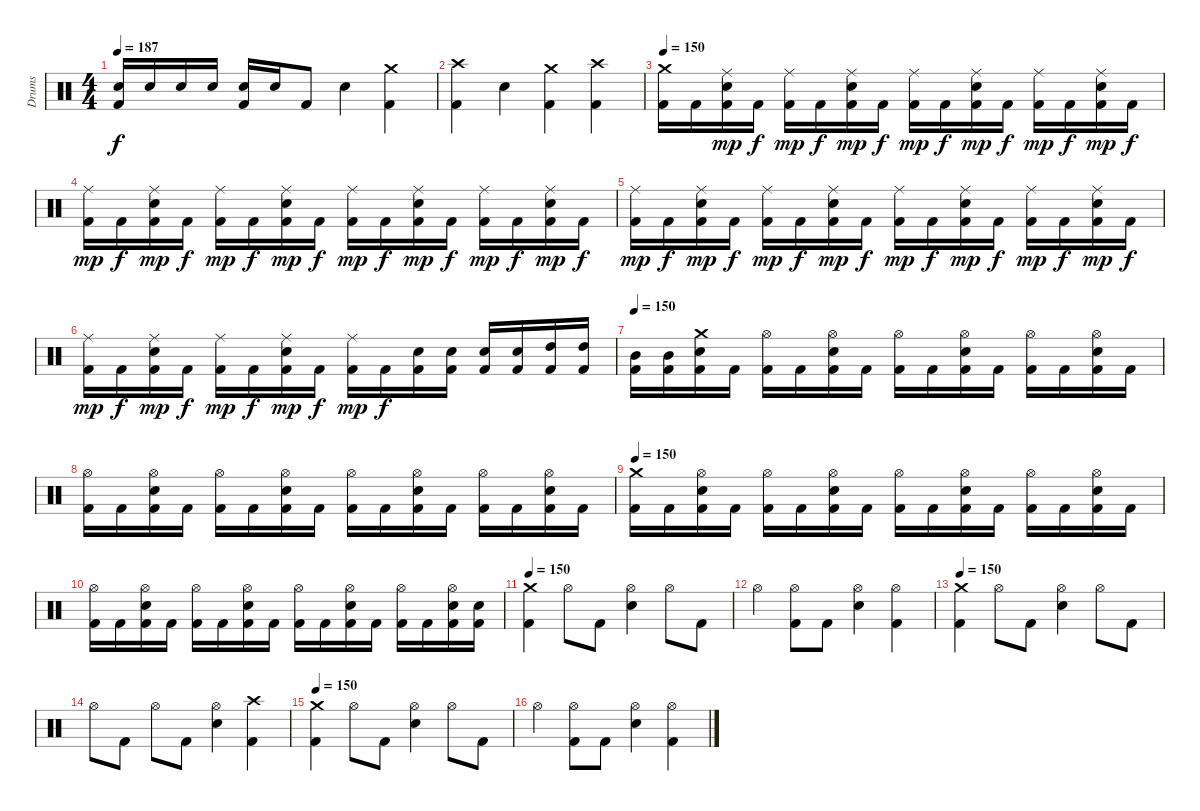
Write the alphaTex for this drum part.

\track ("Drums" "Drums") {instrument percussion}
\staff {score}
\articulation defaults
\ts (4 4)
\tempo 187
\clef neutral
\ks c
("Electric Snare (hit)" "Kick (hit) 2").16{dy f} "Electric Snare (hit)".16 "Electric Snare (hit)".16 "Electric Snare (hit)".16 ("Electric Snare (hit)" "Kick (hit) 2").16 "Electric Snare (hit)".16 "Kick (hit) 2".8 "Electric Snare (hit)".4 ("Crash medium (hit)" "Kick (hit) 2").4 |
("Crash high (hit)" "Kick (hit) 2").4 "Electric Snare (hit)".4 ("Crash medium (hit)" "Kick (hit) 2").4 ("Crash high (hit)" "Kick (hit) 2").4 |
\tempo 150
("Crash medium (hit)" "Kick (hit) 2").16 "Kick (hit) 2".16 ("Ride (middle)" "Electric Snare (hit)" "Kick (hit) 2").16{dy mp} "Kick (hit) 2".16{dy f} ("Ride (middle)" "Kick (hit) 2").16{dy mp} "Kick (hit) 2".16{dy f} ("Ride (middle)" "Electric Snare (hit)" "Kick (hit) 2").16{dy mp} "Kick (hit) 2".16{dy f} ("Ride (middle)" "Kick (hit) 2").16{dy mp} "Kick (hit) 2".16{dy f} ("Ride (middle)" "Electric Snare (hit)" "Kick (hit) 2").16{dy mp} "Kick (hit) 2".16{dy f} ("Ride (middle)" "Kick (hit) 2").16{dy mp} "Kick (hit) 2".16{dy f} ("Ride (middle)" "Electric Snare (hit)" "Kick (hit) 2").16{dy mp} "Kick (hit) 2".16{dy f} |
("Ride (middle)" "Kick (hit) 2").16{dy mp} "Kick (hit) 2".16{dy f} ("Ride (middle)" "Electric Snare (hit)" "Kick (hit) 2").16{dy mp} "Kick (hit) 2".16{dy f} ("Ride (middle)" "Kick (hit) 2").16{dy mp} "Kick (hit) 2".16{dy f} ("Ride (middle)" "Electric Snare (hit)" "Kick (hit) 2").16{dy mp} "Kick (hit) 2".16{dy f} ("Ride (middle)" "Kick (hit) 2").16{dy mp} "Kick (hit) 2".16{dy f} ("Ride (middle)" "Electric Snare (hit)" "Kick (hit) 2").16{dy mp} "Kick (hit) 2".16{dy f} ("Ride (middle)" "Kick (hit) 2").16{dy mp} "Kick (hit) 2".16{dy f} ("Ride (middle)" "Electric Snare (hit)" "Kick (hit) 2").16{dy mp} "Kick (hit) 2".16{dy f} |
("Ride (middle)" "Kick (hit) 2").16{dy mp} "Kick (hit) 2".16{dy f} ("Ride (middle)" "Electric Snare (hit)" "Kick (hit) 2").16{dy mp} "Kick (hit) 2".16{dy f} ("Ride (middle)" "Kick (hit) 2").16{dy mp} "Kick (hit) 2".16{dy f} ("Ride (middle)" "Electric Snare (hit)" "Kick (hit) 2").16{dy mp} "Kick (hit) 2".16{dy f} ("Ride (middle)" "Kick (hit) 2").16{dy mp} "Kick (hit) 2".16{dy f} ("Ride (middle)" "Electric Snare (hit)" "Kick (hit) 2").16{dy mp} "Kick (hit) 2".16{dy f} ("Ride (middle)" "Kick (hit) 2").16{dy mp} "Kick (hit) 2".16{dy f} ("Ride (middle)" "Electric Snare (hit)" "Kick (hit) 2").16{dy mp} "Kick (hit) 2".16{dy f} |
("Ride (middle)" "Kick (hit) 2").16{dy mp} "Kick (hit) 2".16{dy f} ("Ride (middle)" "Electric Snare (hit)" "Kick (hit) 2").16{dy mp} "Kick (hit) 2".16{dy f} ("Ride (middle)" "Kick (hit) 2").16{dy mp} "Kick (hit) 2".16{dy f} ("Ride (middle)" "Electric Snare (hit)" "Kick (hit) 2").16{dy mp} "Kick (hit) 2".16{dy f} ("Ride (middle)" "Kick (hit) 2").16{dy mp} "Kick (hit) 2".16{dy f} ("Electric Snare (hit)" "Kick (hit) 2").16 ("Electric Snare (hit)" "Kick (hit) 2").16 ("Electric Snare (hit)" "Kick (hit) 2").16 ("Electric Snare (hit)" "Kick (hit) 2").16 ("High Tom (hit)" "Kick (hit) 2").16 ("High Tom (hit)" "Kick (hit) 2").16 |
\tempo 150
("Mid Tom (hit)" "Kick (hit) 2").16 ("Mid Tom (hit)" "Kick (hit) 2").16 ("Crash medium (hit)" "Electric Snare (hit)" "Kick (hit) 2").16 "Kick (hit) 2".16 ("Hi-Hat (open)" "Kick (hit) 2").16 "Kick (hit) 2".16 ("Hi-Hat (open)" "Electric Snare (hit)" "Kick (hit) 2").16 "Kick (hit) 2".16 ("Hi-Hat (open)" "Kick (hit) 2").16 "Kick (hit) 2".16 ("Hi-Hat (open)" "Electric Snare (hit)" "Kick (hit) 2").16 "Kick (hit) 2".16 ("Hi-Hat (open)" "Kick (hit) 2").16 "Kick (hit) 2".16 ("Hi-Hat (open)" "Electric Snare (hit)" "Kick (hit) 2").16 "Kick (hit) 2".16 |
("Hi-Hat (open)" "Kick (hit) 2").16 "Kick (hit) 2".16 ("Hi-Hat (open)" "Electric Snare (hit)" "Kick (hit) 2").16 "Kick (hit) 2".16 ("Hi-Hat (open)" "Kick (hit) 2").16 "Kick (hit) 2".16 ("Hi-Hat (open)" "Electric Snare (hit)" "Kick (hit) 2").16 "Kick (hit) 2".16 ("Hi-Hat (open)" "Kick (hit) 2").16 "Kick (hit) 2".16 ("Hi-Hat (open)" "Electric Snare (hit)" "Kick (hit) 2").16 "Kick (hit) 2".16 ("Hi-Hat (open)" "Kick (hit) 2").16 "Kick (hit) 2".16 ("Hi-Hat (open)" "Electric Snare (hit)" "Kick (hit) 2").16 "Kick (hit) 2".16 |
\tempo 150
("Crash medium (hit)" "Kick (hit) 2").16 "Kick (hit) 2".16 ("Hi-Hat (open)" "Electric Snare (hit)" "Kick (hit) 2").16 "Kick (hit) 2".16 ("Hi-Hat (open)" "Kick (hit) 2").16 "Kick (hit) 2".16 ("Hi-Hat (open)" "Electric Snare (hit)" "Kick (hit) 2").16 "Kick (hit) 2".16 ("Hi-Hat (open)" "Kick (hit) 2").16 "Kick (hit) 2".16 ("Hi-Hat (open)" "Electric Snare (hit)" "Kick (hit) 2").16 "Kick (hit) 2".16 ("Hi-Hat (open)" "Kick (hit) 2").16 "Kick (hit) 2".16 ("Hi-Hat (open)" "Electric Snare (hit)" "Kick (hit) 2").16 "Kick (hit) 2".16 |
("Hi-Hat (open)" "Kick (hit) 2").16 "Kick (hit) 2".16 ("Hi-Hat (open)" "Electric Snare (hit)" "Kick (hit) 2").16 "Kick (hit) 2".16 ("Hi-Hat (open)" "Kick (hit) 2").16 "Kick (hit) 2".16 ("Hi-Hat (open)" "Electric Snare (hit)" "Kick (hit) 2").16 "Kick (hit) 2".16 ("Hi-Hat (open)" "Kick (hit) 2").16 "Kick (hit) 2".16 ("Hi-Hat (open)" "Electric Snare (hit)" "Kick (hit) 2").16 "Kick (hit) 2".16 ("Hi-Hat (open)" "Kick (hit) 2").16 "Kick (hit) 2".16 ("Hi-Hat (open)" "Electric Snare (hit)" "Kick (hit) 2").16 ("Electric Snare (hit)" "Kick (hit) 2").16 |
\tempo 150
("Crash medium (hit)" "Kick (hit) 2").4 "Hi-Hat (open)".8 "Kick (hit) 2".8 ("Hi-Hat (open)" "Electric Snare (hit)").4 "Hi-Hat (open)".8 "Kick (hit) 2".8 |
"Hi-Hat (open)".4 ("Hi-Hat (open)" "Kick (hit) 2").8 "Kick (hit) 2".8 ("Hi-Hat (open)" "Electric Snare (hit)").4 ("Hi-Hat (open)" "Kick (hit) 2").4 |
\tempo 150
("Crash medium (hit)" "Kick (hit) 2").4 "Hi-Hat (open)".8 "Kick (hit) 2".8 ("Hi-Hat (open)" "Electric Snare (hit)").4 "Hi-Hat (open)".8 "Kick (hit) 2".8 |
"Hi-Hat (open)".8 "Kick (hit) 2".8 "Hi-Hat (open)".8 "Kick (hit) 2".8 ("Hi-Hat (open)" "Electric Snare (hit)").4 ("Crash high (hit)" "Kick (hit) 2").4 |
\tempo 150
("Crash medium (hit)" "Kick (hit) 2").4 "Hi-Hat (open)".8 "Kick (hit) 2".8 ("Hi-Hat (open)" "Electric Snare (hit)").4 "Hi-Hat (open)".8 "Kick (hit) 2".8 |
"Hi-Hat (open)".4 ("Hi-Hat (open)" "Kick (hit) 2").8 "Kick (hit) 2".8 ("Hi-Hat (open)" "Electric Snare (hit)").4 ("Hi-Hat (open)" "Kick (hit) 2").4
